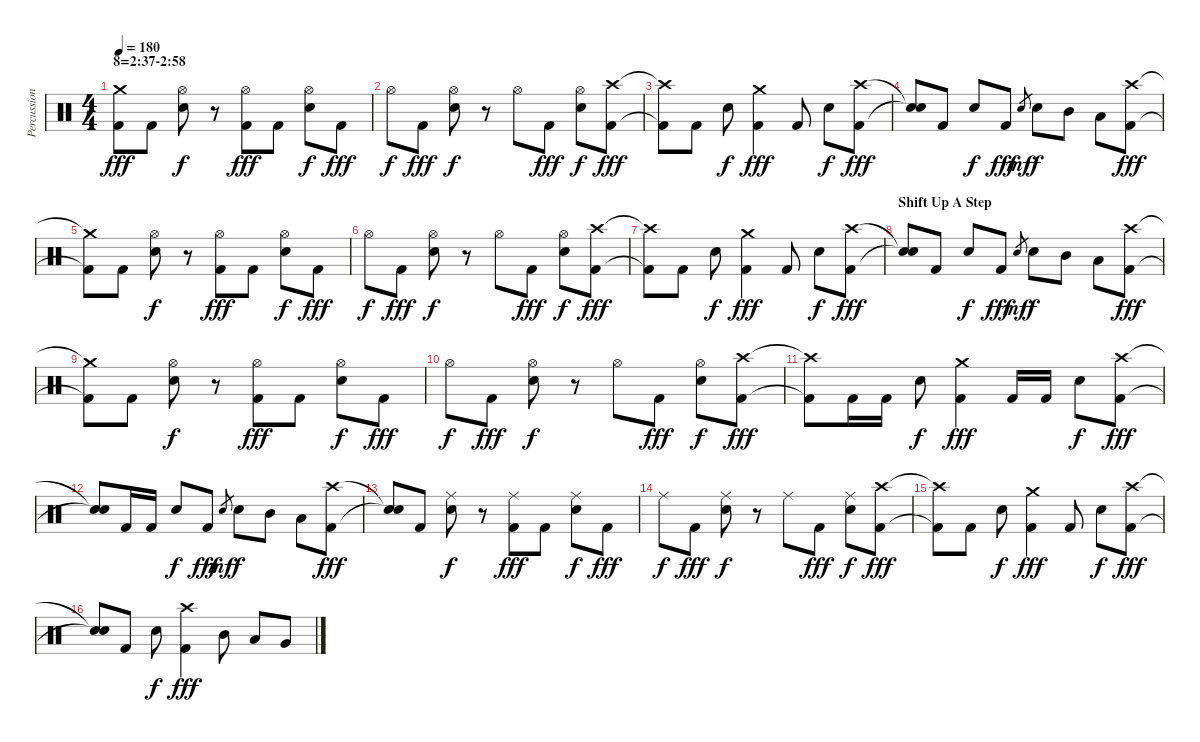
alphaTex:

\track ("Percussion" "Percussion") {instrument percussion}
\staff {score}
\articulation defaults
\ts (4 4)
\section ("" "8=2:37-2:58")
\tempo 180
\clef neutral
\ks c
("Crash medium (hit)" "Kick (hit) 2").8{dy fff} "Kick (hit) 2".8 ("Hi-Hat (open)" "Snare (hit) 2").8{dy f} r.8 ("Hi-Hat (open)" "Kick (hit) 2").8{dy fff} "Kick (hit) 2".8 ("Hi-Hat (open)" "Snare (hit) 2").8{dy f} "Kick (hit) 2".8{dy fff} |
"Hi-Hat (open)".8{dy f} "Kick (hit) 2".8{dy fff} ("Hi-Hat (open)" "Snare (hit) 2").8{dy f} r.8 "Hi-Hat (open)".8 "Kick (hit) 2".8{dy fff} ("Hi-Hat (open)" "Snare (hit) 2").8{dy f} ("Crash high (hit)" "Kick (hit) 2").8{dy fff} |
("Crash high (hit)"{t} "Kick (hit) 2"{t}).8 "Kick (hit) 2".8 "Snare (hit) 2".8{dy f} ("Crash medium (hit)" "Kick (hit) 2").4{dy fff} "Kick (hit) 2".8 "Snare (hit) 2".8{dy f} ("Crash high (hit)" "Kick (hit) 2").8{dy fff} |
("Snare (hit)"{t} "Snare (hit)"{t}).8 "Kick (hit) 2".8 "Snare (hit) 2".8{dy f} "Kick (hit) 2".8{dy fff} "Snare (hit) 2".8{gr dy mf} "Snare (hit) 2".8{dy f} "Mid Tom (hit)".8 "Low Tom (hit)".8 ("Crash high (hit)" "Kick (hit) 2").8{dy fff} |
("Crash medium (hit)"{t} "Kick (hit) 2"{t}).8 "Kick (hit) 2".8 ("Hi-Hat (open)" "Snare (hit) 2").8{dy f} r.8 ("Hi-Hat (open)" "Kick (hit) 2").8{dy fff} "Kick (hit) 2".8 ("Hi-Hat (open)" "Snare (hit) 2").8{dy f} "Kick (hit) 2".8{dy fff} |
"Hi-Hat (open)".8{dy f} "Kick (hit) 2".8{dy fff} ("Hi-Hat (open)" "Snare (hit) 2").8{dy f} r.8 "Hi-Hat (open)".8 "Kick (hit) 2".8{dy fff} ("Hi-Hat (open)" "Snare (hit) 2").8{dy f} ("Crash high (hit)" "Kick (hit) 2").8{dy fff} |
("Crash high (hit)"{t} "Kick (hit) 2"{t}).8 "Kick (hit) 2".8 "Snare (hit) 2".8{dy f} ("Crash medium (hit)" "Kick (hit) 2").4{dy fff} "Kick (hit) 2".8 "Snare (hit) 2".8{dy f} ("Crash high (hit)" "Kick (hit) 2").8{dy fff} |
\section ("" "Shift Up A Step")
("Snare (hit)"{t} "Snare (hit)"{t}).8 "Kick (hit) 2".8 "Snare (hit) 2".8{dy f} "Kick (hit) 2".8{dy fff} "Snare (hit) 2".8{gr dy mf} "Snare (hit) 2".8{dy f} "Mid Tom (hit)".8 "Low Tom (hit)".8 ("Crash high (hit)" "Kick (hit) 2").8{dy fff} |
("Crash medium (hit)"{t} "Kick (hit) 2"{t}).8 "Kick (hit) 2".8 ("Hi-Hat (open)" "Snare (hit) 2").8{dy f} r.8 ("Hi-Hat (open)" "Kick (hit) 2").8{dy fff} "Kick (hit) 2".8 ("Hi-Hat (open)" "Snare (hit) 2").8{dy f} "Kick (hit) 2".8{dy fff} |
"Hi-Hat (open)".8{dy f} "Kick (hit) 2".8{dy fff} ("Hi-Hat (open)" "Snare (hit) 2").8{dy f} r.8 "Hi-Hat (open)".8 "Kick (hit) 2".8{dy fff} ("Hi-Hat (open)" "Snare (hit) 2").8{dy f} ("Crash high (hit)" "Kick (hit) 2").8{dy fff} |
("Crash high (hit)"{t} "Kick (hit) 2"{t}).8 "Kick (hit) 2".16 "Kick (hit) 2".16 "Snare (hit) 2".8{dy f} ("Crash medium (hit)" "Kick (hit) 2").4{dy fff} "Kick (hit) 2".16 "Kick (hit) 2".16 "Snare (hit) 2".8{dy f} ("Crash high (hit)" "Kick (hit) 2").8{dy fff} |
("Snare (hit)"{t} "Snare (hit)"{t}).8 "Kick (hit) 2".16 "Kick (hit) 2".16 "Snare (hit) 2".8{dy f} "Kick (hit) 2".8{dy fff} "Snare (hit) 2".8{gr dy mf} "Snare (hit) 2".8{dy f} "Mid Tom (hit)".8 "Low Tom (hit)".8 ("Crash high (hit)" "Kick (hit) 2").8{dy fff} |
("Snare (hit)"{t} "Snare (hit)"{t}).8 "Kick (hit) 2".8 ("Ride (middle)" "Snare (hit) 2").8{dy f} r.8 ("Ride (middle)" "Kick (hit) 2").8{dy fff} "Kick (hit) 2".8 ("Ride (middle)" "Snare (hit) 2").8{dy f} "Kick (hit) 2".8{dy fff} |
"Ride (middle)".8{dy f} "Kick (hit) 2".8{dy fff} ("Ride (middle)" "Snare (hit) 2").8{dy f} r.8 "Ride (middle)".8 "Kick (hit) 2".8{dy fff} ("Ride (middle)" "Snare (hit) 2").8{dy f} ("Crash high (hit)" "Kick (hit) 2").8{dy fff} |
("Crash high (hit)"{t} "Kick (hit) 2"{t}).8 "Kick (hit) 2".8 "Snare (hit) 2".8{dy f} ("Crash medium (hit)" "Kick (hit) 2").4{dy fff} "Kick (hit) 2".8 "Snare (hit) 2".8{dy f} ("Crash high (hit)" "Kick (hit) 2").8{dy fff} |
("Snare (hit)"{t} "Snare (hit)"{t}).8 "Kick (hit) 2".8 "Snare (hit) 2".8{dy f} ("Crash high (hit)" "Kick (hit) 2").4{dy fff} "Mid Tom (hit)".8 "Low Tom (hit)".8 "Very Low Tom (hit)".8
